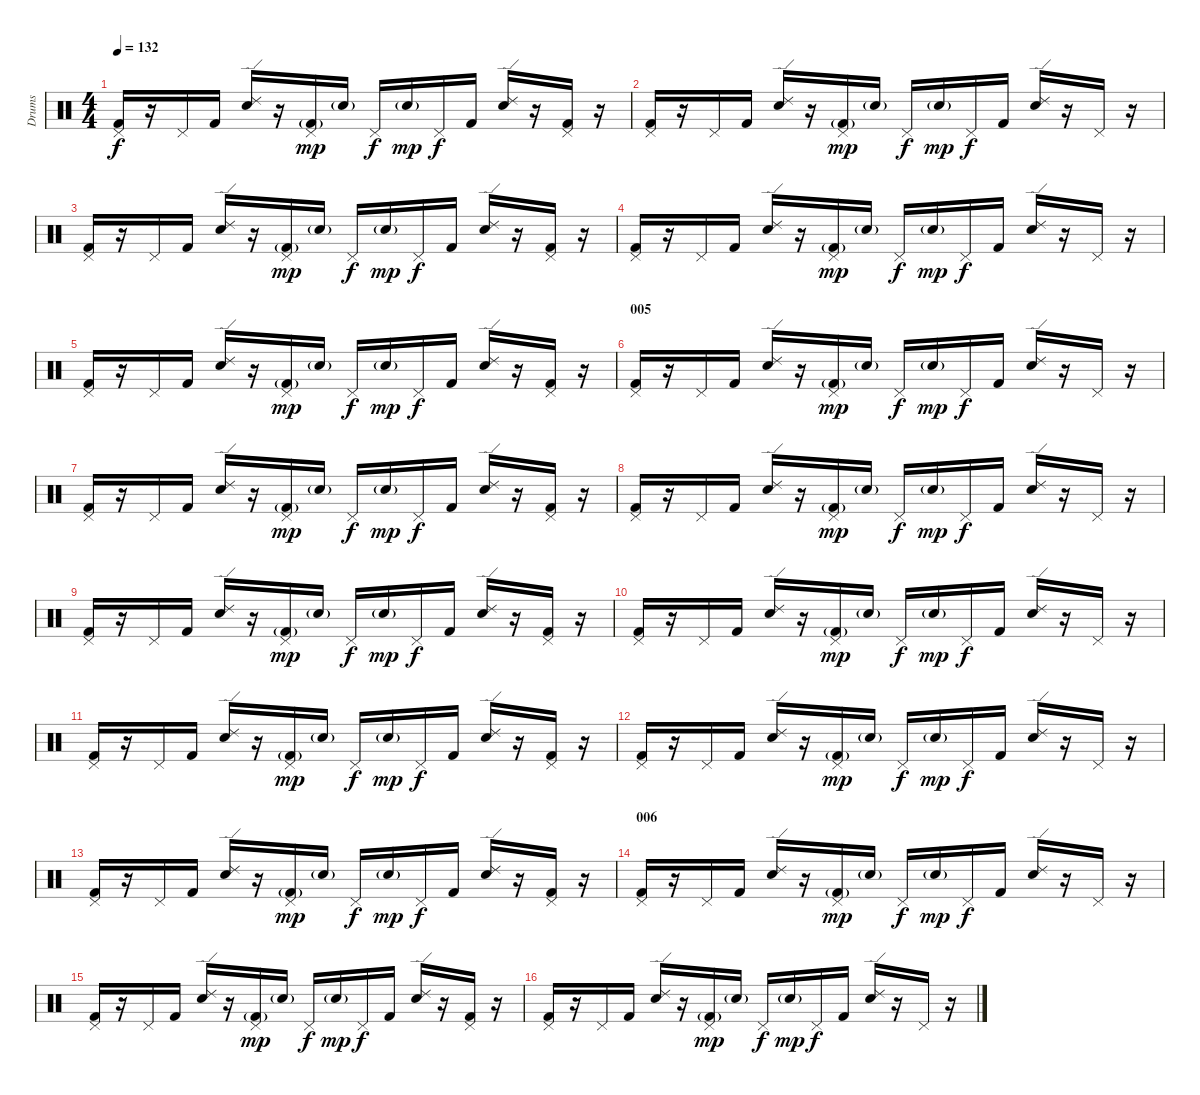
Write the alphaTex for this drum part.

\track ("Drums" "Drums") {instrument percussion}
\staff {score}
\articulation defaults
\ts (4 4)
\tempo 132
\clef neutral
\ks c
("Kick (hit) 2" "Pedal Hi-Hat (hit)").16{dy f} r.16 "Pedal Hi-Hat (hit)".16 "Kick (hit) 2".16 ("Electric Snare (hit)" "Ride (edge) 2").16 r.16 ("Kick (hit) 2"{g} "Pedal Hi-Hat (hit)").16{dy mp} "Electric Snare (hit)"{g}.16 "Pedal Hi-Hat (hit)".16{dy f} "Electric Snare (hit)"{g}.16{dy mp} "Pedal Hi-Hat (hit)".16{dy f} "Kick (hit) 2".16 ("Electric Snare (hit)" "Ride (edge) 2").16 r.16 ("Kick (hit) 2" "Pedal Hi-Hat (hit)").16 r.16 |
("Kick (hit) 2" "Pedal Hi-Hat (hit)").16 r.16 "Pedal Hi-Hat (hit)".16 "Kick (hit) 2".16 ("Electric Snare (hit)" "Ride (edge) 2").16 r.16 ("Kick (hit) 2"{g} "Pedal Hi-Hat (hit)").16{dy mp} "Electric Snare (hit)"{g}.16 "Pedal Hi-Hat (hit)".16{dy f} "Electric Snare (hit)"{g}.16{dy mp} "Pedal Hi-Hat (hit)".16{dy f} "Kick (hit) 2".16 ("Electric Snare (hit)" "Ride (edge) 2").16 r.16 "Pedal Hi-Hat (hit)".16 r.16 |
("Kick (hit) 2" "Pedal Hi-Hat (hit)").16 r.16 "Pedal Hi-Hat (hit)".16 "Kick (hit) 2".16 ("Electric Snare (hit)" "Ride (edge) 2").16 r.16 ("Kick (hit) 2"{g} "Pedal Hi-Hat (hit)").16{dy mp} "Electric Snare (hit)"{g}.16 "Pedal Hi-Hat (hit)".16{dy f} "Electric Snare (hit)"{g}.16{dy mp} "Pedal Hi-Hat (hit)".16{dy f} "Kick (hit) 2".16 ("Electric Snare (hit)" "Ride (edge) 2").16 r.16 ("Kick (hit) 2" "Pedal Hi-Hat (hit)").16 r.16 |
("Kick (hit) 2" "Pedal Hi-Hat (hit)").16 r.16 "Pedal Hi-Hat (hit)".16 "Kick (hit) 2".16 ("Electric Snare (hit)" "Ride (edge) 2").16 r.16 ("Kick (hit) 2"{g} "Pedal Hi-Hat (hit)").16{dy mp} "Electric Snare (hit)"{g}.16 "Pedal Hi-Hat (hit)".16{dy f} "Electric Snare (hit)"{g}.16{dy mp} "Pedal Hi-Hat (hit)".16{dy f} "Kick (hit) 2".16 ("Electric Snare (hit)" "Ride (edge) 2").16 r.16 "Pedal Hi-Hat (hit)".16 r.16 |
("Kick (hit) 2" "Pedal Hi-Hat (hit)").16 r.16 "Pedal Hi-Hat (hit)".16 "Kick (hit) 2".16 ("Electric Snare (hit)" "Ride (edge) 2").16 r.16 ("Kick (hit) 2"{g} "Pedal Hi-Hat (hit)").16{dy mp} "Electric Snare (hit)"{g}.16 "Pedal Hi-Hat (hit)".16{dy f} "Electric Snare (hit)"{g}.16{dy mp} "Pedal Hi-Hat (hit)".16{dy f} "Kick (hit) 2".16 ("Electric Snare (hit)" "Ride (edge) 2").16 r.16 ("Kick (hit) 2" "Pedal Hi-Hat (hit)").16 r.16 |
\section ("" "005")
("Kick (hit) 2" "Pedal Hi-Hat (hit)").16 r.16 "Pedal Hi-Hat (hit)".16 "Kick (hit) 2".16 ("Electric Snare (hit)" "Ride (edge) 2").16 r.16 ("Kick (hit) 2"{g} "Pedal Hi-Hat (hit)").16{dy mp} "Electric Snare (hit)"{g}.16 "Pedal Hi-Hat (hit)".16{dy f} "Electric Snare (hit)"{g}.16{dy mp} "Pedal Hi-Hat (hit)".16{dy f} "Kick (hit) 2".16 ("Electric Snare (hit)" "Ride (edge) 2").16 r.16 "Pedal Hi-Hat (hit)".16 r.16 |
("Kick (hit) 2" "Pedal Hi-Hat (hit)").16 r.16 "Pedal Hi-Hat (hit)".16 "Kick (hit) 2".16 ("Electric Snare (hit)" "Ride (edge) 2").16 r.16 ("Kick (hit) 2"{g} "Pedal Hi-Hat (hit)").16{dy mp} "Electric Snare (hit)"{g}.16 "Pedal Hi-Hat (hit)".16{dy f} "Electric Snare (hit)"{g}.16{dy mp} "Pedal Hi-Hat (hit)".16{dy f} "Kick (hit) 2".16 ("Electric Snare (hit)" "Ride (edge) 2").16 r.16 ("Kick (hit) 2" "Pedal Hi-Hat (hit)").16 r.16 |
("Kick (hit) 2" "Pedal Hi-Hat (hit)").16 r.16 "Pedal Hi-Hat (hit)".16 "Kick (hit) 2".16 ("Electric Snare (hit)" "Ride (edge) 2").16 r.16 ("Kick (hit) 2"{g} "Pedal Hi-Hat (hit)").16{dy mp} "Electric Snare (hit)"{g}.16 "Pedal Hi-Hat (hit)".16{dy f} "Electric Snare (hit)"{g}.16{dy mp} "Pedal Hi-Hat (hit)".16{dy f} "Kick (hit) 2".16 ("Electric Snare (hit)" "Ride (edge) 2").16 r.16 "Pedal Hi-Hat (hit)".16 r.16 |
("Kick (hit) 2" "Pedal Hi-Hat (hit)").16 r.16 "Pedal Hi-Hat (hit)".16 "Kick (hit) 2".16 ("Electric Snare (hit)" "Ride (edge) 2").16 r.16 ("Kick (hit) 2"{g} "Pedal Hi-Hat (hit)").16{dy mp} "Electric Snare (hit)"{g}.16 "Pedal Hi-Hat (hit)".16{dy f} "Electric Snare (hit)"{g}.16{dy mp} "Pedal Hi-Hat (hit)".16{dy f} "Kick (hit) 2".16 ("Electric Snare (hit)" "Ride (edge) 2").16 r.16 ("Kick (hit) 2" "Pedal Hi-Hat (hit)").16 r.16 |
("Kick (hit) 2" "Pedal Hi-Hat (hit)").16 r.16 "Pedal Hi-Hat (hit)".16 "Kick (hit) 2".16 ("Electric Snare (hit)" "Ride (edge) 2").16 r.16 ("Kick (hit) 2"{g} "Pedal Hi-Hat (hit)").16{dy mp} "Electric Snare (hit)"{g}.16 "Pedal Hi-Hat (hit)".16{dy f} "Electric Snare (hit)"{g}.16{dy mp} "Pedal Hi-Hat (hit)".16{dy f} "Kick (hit) 2".16 ("Electric Snare (hit)" "Ride (edge) 2").16 r.16 "Pedal Hi-Hat (hit)".16 r.16 |
("Kick (hit) 2" "Pedal Hi-Hat (hit)").16 r.16 "Pedal Hi-Hat (hit)".16 "Kick (hit) 2".16 ("Electric Snare (hit)" "Ride (edge) 2").16 r.16 ("Kick (hit) 2"{g} "Pedal Hi-Hat (hit)").16{dy mp} "Electric Snare (hit)"{g}.16 "Pedal Hi-Hat (hit)".16{dy f} "Electric Snare (hit)"{g}.16{dy mp} "Pedal Hi-Hat (hit)".16{dy f} "Kick (hit) 2".16 ("Electric Snare (hit)" "Ride (edge) 2").16 r.16 ("Kick (hit) 2" "Pedal Hi-Hat (hit)").16 r.16 |
("Kick (hit) 2" "Pedal Hi-Hat (hit)").16 r.16 "Pedal Hi-Hat (hit)".16 "Kick (hit) 2".16 ("Electric Snare (hit)" "Ride (edge) 2").16 r.16 ("Kick (hit) 2"{g} "Pedal Hi-Hat (hit)").16{dy mp} "Electric Snare (hit)"{g}.16 "Pedal Hi-Hat (hit)".16{dy f} "Electric Snare (hit)"{g}.16{dy mp} "Pedal Hi-Hat (hit)".16{dy f} "Kick (hit) 2".16 ("Electric Snare (hit)" "Ride (edge) 2").16 r.16 "Pedal Hi-Hat (hit)".16 r.16 |
("Kick (hit) 2" "Pedal Hi-Hat (hit)").16 r.16 "Pedal Hi-Hat (hit)".16 "Kick (hit) 2".16 ("Electric Snare (hit)" "Ride (edge) 2").16 r.16 ("Kick (hit) 2"{g} "Pedal Hi-Hat (hit)").16{dy mp} "Electric Snare (hit)"{g}.16 "Pedal Hi-Hat (hit)".16{dy f} "Electric Snare (hit)"{g}.16{dy mp} "Pedal Hi-Hat (hit)".16{dy f} "Kick (hit) 2".16 ("Electric Snare (hit)" "Ride (edge) 2").16 r.16 ("Kick (hit) 2" "Pedal Hi-Hat (hit)").16 r.16 |
\section ("" "006")
("Kick (hit) 2" "Pedal Hi-Hat (hit)").16 r.16 "Pedal Hi-Hat (hit)".16 "Kick (hit) 2".16 ("Electric Snare (hit)" "Ride (edge) 2").16 r.16 ("Kick (hit) 2"{g} "Pedal Hi-Hat (hit)").16{dy mp} "Electric Snare (hit)"{g}.16 "Pedal Hi-Hat (hit)".16{dy f} "Electric Snare (hit)"{g}.16{dy mp} "Pedal Hi-Hat (hit)".16{dy f} "Kick (hit) 2".16 ("Electric Snare (hit)" "Ride (edge) 2").16 r.16 "Pedal Hi-Hat (hit)".16 r.16 |
("Kick (hit) 2" "Pedal Hi-Hat (hit)").16 r.16 "Pedal Hi-Hat (hit)".16 "Kick (hit) 2".16 ("Electric Snare (hit)" "Ride (edge) 2").16 r.16 ("Kick (hit) 2"{g} "Pedal Hi-Hat (hit)").16{dy mp} "Electric Snare (hit)"{g}.16 "Pedal Hi-Hat (hit)".16{dy f} "Electric Snare (hit)"{g}.16{dy mp} "Pedal Hi-Hat (hit)".16{dy f} "Kick (hit) 2".16 ("Electric Snare (hit)" "Ride (edge) 2").16 r.16 ("Kick (hit) 2" "Pedal Hi-Hat (hit)").16 r.16 |
("Kick (hit) 2" "Pedal Hi-Hat (hit)").16 r.16 "Pedal Hi-Hat (hit)".16 "Kick (hit) 2".16 ("Electric Snare (hit)" "Ride (edge) 2").16 r.16 ("Kick (hit) 2"{g} "Pedal Hi-Hat (hit)").16{dy mp} "Electric Snare (hit)"{g}.16 "Pedal Hi-Hat (hit)".16{dy f} "Electric Snare (hit)"{g}.16{dy mp} "Pedal Hi-Hat (hit)".16{dy f} "Kick (hit) 2".16 ("Electric Snare (hit)" "Ride (edge) 2").16 r.16 "Pedal Hi-Hat (hit)".16 r.16
